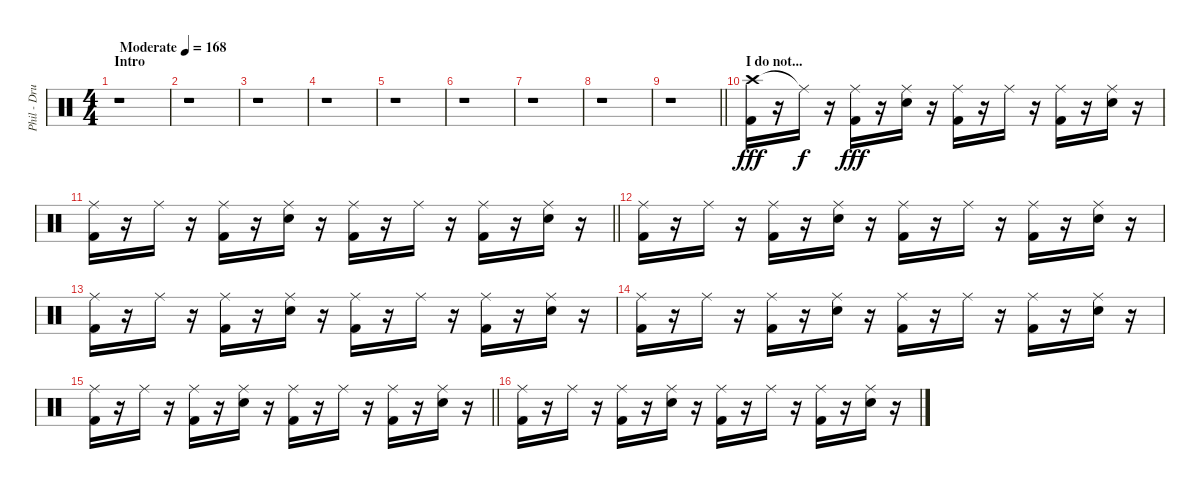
\track ("Phil - Drums" "Phil - Dru") {instrument percussion}
\staff {score}
\articulation defaults
\ts (4 4)
\section ("" "Intro")
\tempo (168 "Moderate")
\clef neutral
\ks c
r.1{dy fff} |
r.1 |
r.1 |
r.1 |
r.1 |
r.1 |
r.1 |
r.1 |
\barLineRight lightlight
r.1 |
\section ("" "I do not...")
("Crash high (hit)" "Kick (hit) 2").16 r.16 "Ride (middle)"{t}.16{dy f} r.16 ("Ride (middle)" "Kick (hit) 2").16{dy fff} r.16 ("Ride (middle)" "Electric Snare (hit)").16 r.16 ("Ride (middle)" "Kick (hit) 2").16 r.16 "Ride (middle)".16 r.16 ("Ride (middle)" "Kick (hit) 2").16 r.16 ("Ride (middle)" "Electric Snare (hit)").16 r.16 |
\barLineRight lightlight
("Ride (middle)" "Kick (hit) 2").16 r.16 "Ride (middle)".16 r.16 ("Ride (middle)" "Kick (hit) 2").16 r.16 ("Ride (middle)" "Electric Snare (hit)").16 r.16 ("Ride (middle)" "Kick (hit) 2").16 r.16 "Ride (middle)".16 r.16 ("Ride (middle)" "Kick (hit) 2").16 r.16 ("Ride (middle)" "Electric Snare (hit)").16 r.16 |
("Ride (middle)" "Kick (hit) 2").16 r.16 "Ride (middle)".16 r.16 ("Ride (middle)" "Kick (hit) 2").16 r.16 ("Ride (middle)" "Electric Snare (hit)").16 r.16 ("Ride (middle)" "Kick (hit) 2").16 r.16 "Ride (middle)".16 r.16 ("Ride (middle)" "Kick (hit) 2").16 r.16 ("Ride (middle)" "Electric Snare (hit)").16 r.16 |
("Ride (middle)" "Kick (hit) 2").16 r.16 "Ride (middle)".16 r.16 ("Ride (middle)" "Kick (hit) 2").16 r.16 ("Ride (middle)" "Electric Snare (hit)").16 r.16 ("Ride (middle)" "Kick (hit) 2").16 r.16 "Ride (middle)".16 r.16 ("Ride (middle)" "Kick (hit) 2").16 r.16 ("Ride (middle)" "Electric Snare (hit)").16 r.16 |
("Ride (middle)" "Kick (hit) 2").16 r.16 "Ride (middle)".16 r.16 ("Ride (middle)" "Kick (hit) 2").16 r.16 ("Ride (middle)" "Electric Snare (hit)").16 r.16 ("Ride (middle)" "Kick (hit) 2").16 r.16 "Ride (middle)".16 r.16 ("Ride (middle)" "Kick (hit) 2").16 r.16 ("Ride (middle)" "Electric Snare (hit)").16 r.16 |
\barLineRight lightlight
("Ride (middle)" "Kick (hit) 2").16 r.16 "Ride (middle)".16 r.16 ("Ride (middle)" "Kick (hit) 2").16 r.16 ("Ride (middle)" "Electric Snare (hit)").16 r.16 ("Ride (middle)" "Kick (hit) 2").16 r.16 "Ride (middle)".16 r.16 ("Ride (middle)" "Kick (hit) 2").16 r.16 ("Ride (middle)" "Electric Snare (hit)").16 r.16 |
("Ride (middle)" "Kick (hit) 2").16 r.16 "Ride (middle)".16 r.16 ("Ride (middle)" "Kick (hit) 2").16 r.16 ("Ride (middle)" "Electric Snare (hit)").16 r.16 ("Ride (middle)" "Kick (hit) 2").16 r.16 "Ride (middle)".16 r.16 ("Ride (middle)" "Kick (hit) 2").16 r.16 ("Ride (middle)" "Electric Snare (hit)").16 r.16
